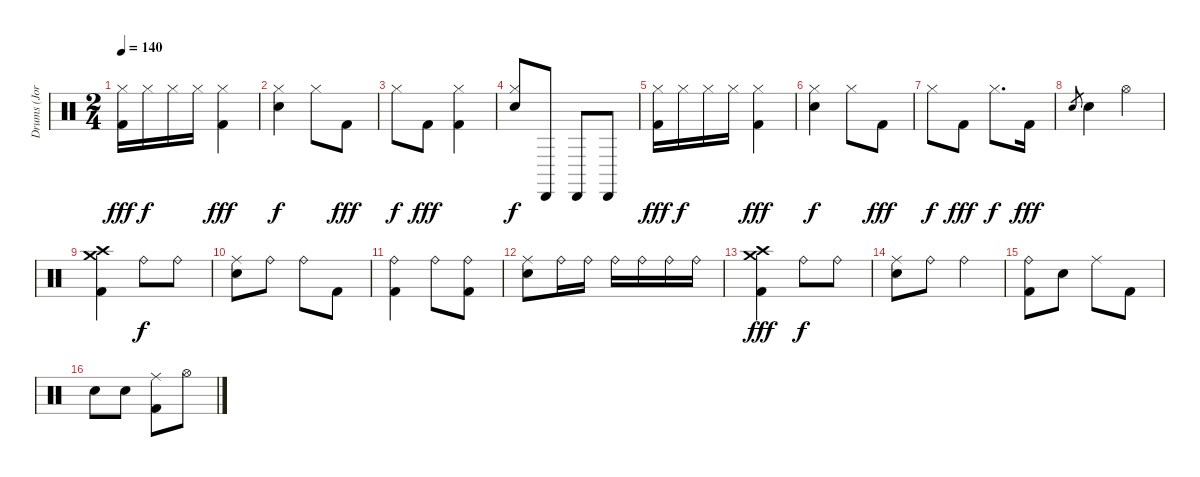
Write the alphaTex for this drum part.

\track ("Drums (Jordan Hastings)" "Drums (Jor") {instrument percussion}
\staff {score}
\articulation defaults
\ts (2 4)
\tempo 140
\clef neutral
\ks c
("Hi-Hat (closed)" "Kick (hit) 2").16{dy fff} "Hi-Hat (closed)".16{dy f} "Hi-Hat (closed)".16 "Hi-Hat (closed)".16 ("Hi-Hat (closed)" "Kick (hit) 2").4{dy fff} |
("Hi-Hat (closed)" "Electric Snare (hit)").4{dy f} "Hi-Hat (closed)".8 "Kick (hit) 2".8{dy fff} |
"Hi-Hat (closed)".8{dy f} "Kick (hit) 2".8{dy fff} ("Hi-Hat (closed)" "Kick (hit) 2").4 |
("Hi-Hat (closed)" "Electric Snare (hit)").8{dy f} "Cabasa (hit)".8 "Cabasa (hit)".8 "Cabasa (hit)".8 |
("Hi-Hat (closed)" "Kick (hit) 2").16{dy fff} "Hi-Hat (closed)".16{dy f} "Hi-Hat (closed)".16 "Hi-Hat (closed)".16 ("Hi-Hat (closed)" "Kick (hit) 2").4{dy fff} |
("Hi-Hat (closed)" "Electric Snare (hit)").4{dy f} "Hi-Hat (closed)".8 "Kick (hit) 2".8{dy fff} |
"Hi-Hat (closed)".8{dy f} "Kick (hit) 2".8{dy fff} "Hi-Hat (closed)".8{d dy f} "Kick (hit) 2".16{dy fff} |
"Electric Snare (hit)".8{gr} "Electric Snare (hit)".4 "Hi-Hat (open)".4 |
("Crash medium (hit)" "Crash high (hit)" "Kick (hit) 2").4 "Ride (bell)".8{dy f} "Ride (bell)".8 |
("Ride (middle)" "Electric Snare (hit)").8 "Ride (bell)".8 "Ride (bell)".8 "Kick (hit) 2".8 |
("Ride (bell)" "Kick (hit) 2").4 "Ride (bell)".8 ("Ride (bell)" "Kick (hit) 2").8 |
("Ride (middle)" "Electric Snare (hit)").8 "Ride (bell)".16 "Ride (bell)".16 "Ride (bell)".16 "Ride (bell)".16 "Ride (bell)".16 "Ride (bell)".16 |
("Crash medium (hit)" "Crash high (hit)" "Kick (hit) 2").4{dy fff} "Ride (bell)".8{dy f} "Ride (bell)".8 |
("Ride (middle)" "Electric Snare (hit)").8 "Ride (bell)".8 "Ride (bell)".4 |
("Ride (bell)" "Kick (hit) 2").8 "Electric Snare (hit)".8 "Ride (middle)".8 "Kick (hit) 2".8 |
"Electric Snare (hit)".8 "Electric Snare (hit)".8 ("Ride (middle)" "Kick (hit) 2").8 "Hi-Hat (open)".8
